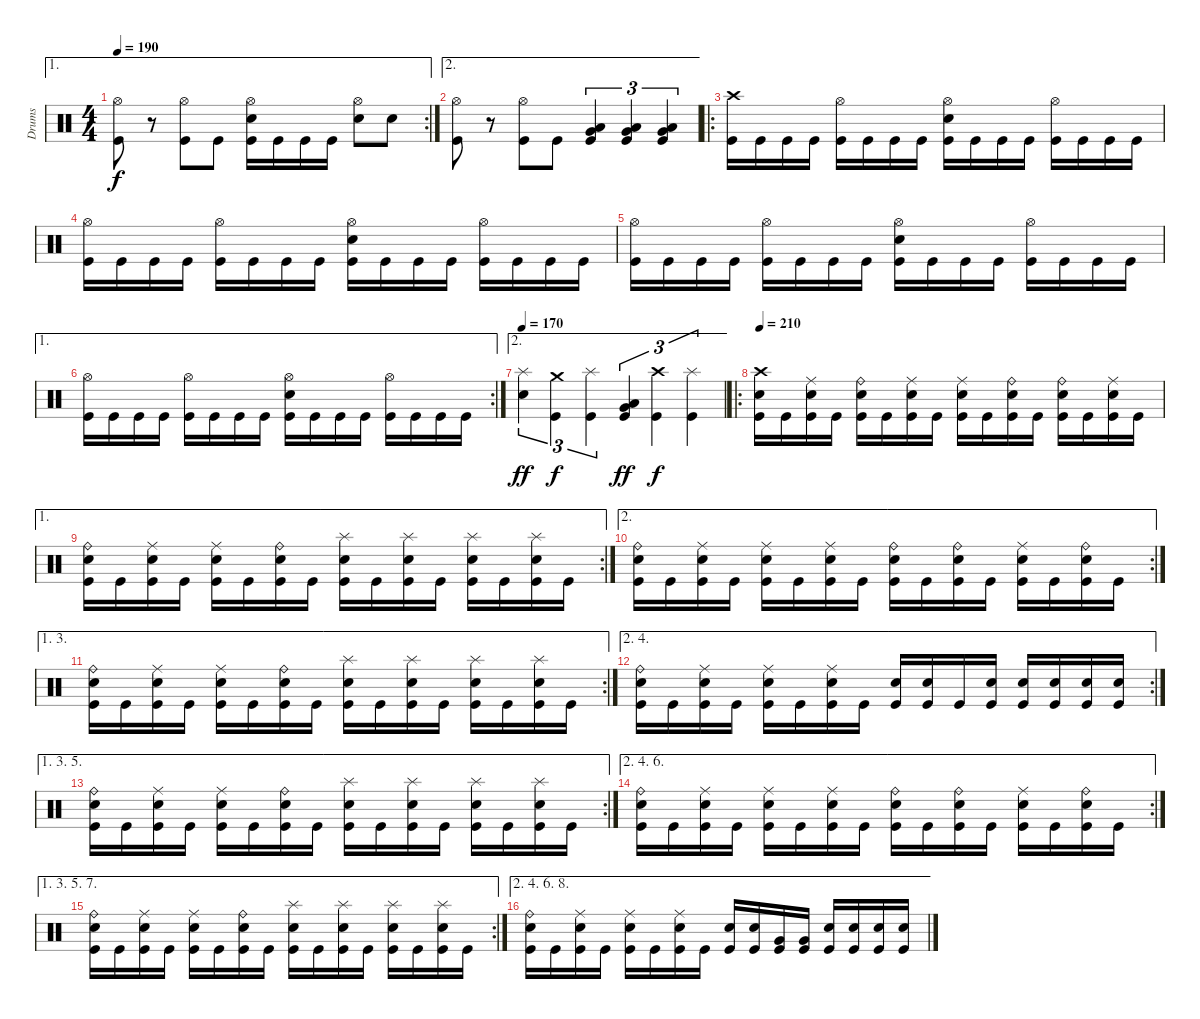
\track ("Drums" "Drums") {instrument percussion}
\staff {score}
\articulation defaults
\ae 1
\rc 2
\ts (4 4)
\tempo 190
\clef neutral
\ks c
("Hi-Hat (open)" "Kick (hit)").8{dy f} r.8 ("Hi-Hat (open)" "Kick (hit)").8 "Kick (hit)".8 ("Hi-Hat (open)" "Electric Snare (hit)" "Kick (hit)").16 "Kick (hit)".16 "Kick (hit)".16 "Kick (hit)".16 ("Hi-Hat (open)" "Electric Snare (hit)").8 "Electric Snare (hit)".8 |
\ae 2
("Hi-Hat (open)" "Kick (hit)").8 r.8 ("Hi-Hat (open)" "Kick (hit)").8 "Kick (hit)".8 ("Very Low Tom (hit)" "Low Tom (hit)" "Kick (hit)").4{tu (3 2)} ("Very Low Tom (hit)" "Low Tom (hit)" "Kick (hit)").4{tu (3 2)} ("Very Low Tom (hit)" "Low Tom (hit)" "Kick (hit)").4{tu (3 2)} |
\ro
("Crash high (hit)" "Kick (hit)").16 "Kick (hit)".16 "Kick (hit)".16 "Kick (hit)".16 ("Hi-Hat (open)" "Kick (hit)").16 "Kick (hit)".16 "Kick (hit)".16 "Kick (hit)".16 ("Hi-Hat (open)" "Electric Snare (hit)" "Kick (hit)").16 "Kick (hit)".16 "Kick (hit)".16 "Kick (hit)".16 ("Hi-Hat (open)" "Kick (hit)").16 "Kick (hit)".16 "Kick (hit)".16 "Kick (hit)".16 |
("Hi-Hat (open)" "Kick (hit)").16 "Kick (hit)".16 "Kick (hit)".16 "Kick (hit)".16 ("Hi-Hat (open)" "Kick (hit)").16 "Kick (hit)".16 "Kick (hit)".16 "Kick (hit)".16 ("Hi-Hat (open)" "Electric Snare (hit)" "Kick (hit)").16 "Kick (hit)".16 "Kick (hit)".16 "Kick (hit)".16 ("Hi-Hat (open)" "Kick (hit)").16 "Kick (hit)".16 "Kick (hit)".16 "Kick (hit)".16 |
("Hi-Hat (open)" "Kick (hit)").16 "Kick (hit)".16 "Kick (hit)".16 "Kick (hit)".16 ("Hi-Hat (open)" "Kick (hit)").16 "Kick (hit)".16 "Kick (hit)".16 "Kick (hit)".16 ("Hi-Hat (open)" "Electric Snare (hit)" "Kick (hit)").16 "Kick (hit)".16 "Kick (hit)".16 "Kick (hit)".16 ("Hi-Hat (open)" "Kick (hit)").16 "Kick (hit)".16 "Kick (hit)".16 "Kick (hit)".16 |
\ae 1
\rc 2
("Hi-Hat (open)" "Kick (hit)").16 "Kick (hit)".16 "Kick (hit)".16 "Kick (hit)".16 ("Hi-Hat (open)" "Kick (hit)").16 "Kick (hit)".16 "Kick (hit)".16 "Kick (hit)".16 ("Hi-Hat (open)" "Electric Snare (hit)" "Kick (hit)").16 "Kick (hit)".16 "Kick (hit)".16 "Kick (hit)".16 ("Hi-Hat (open)" "Kick (hit)").16 "Kick (hit)".16 "Kick (hit)".16 "Kick (hit)".16 |
\ae 2
\tempo 170
("Splash (hit)" "Electric Snare (hit)").4{tu (3 2) dy ff} ("Crash medium (hit)" "Kick (hit)").4{tu (3 2) dy f} ("Splash (hit)" "Kick (hit)").4{tu (3 2)} ("Low Floor Tom (hit)" "Very Low Tom (hit)" "Kick (hit)").4{tu (3 2) dy ff} ("Crash high (hit)" "Kick (hit)").4{tu (3 2) dy f} ("Splash (hit)" "Kick (hit)").4{tu (3 2)} |
\ro
\tempo 210
("Crash high (hit)" "Electric Snare (hit)" "Kick (hit)").16 "Kick (hit)".16 ("Ride (middle)" "Electric Snare (hit)" "Kick (hit)").16 "Kick (hit)".16 ("Ride (bell)" "Electric Snare (hit)" "Kick (hit)").16 "Kick (hit)".16 ("Ride (middle)" "Electric Snare (hit)" "Kick (hit)").16 "Kick (hit)".16 ("Ride (middle)" "Electric Snare (hit)" "Kick (hit)").16 "Kick (hit)".16 ("Ride (bell)" "Electric Snare (hit)" "Kick (hit)").16 "Kick (hit)".16 ("Ride (bell)" "Electric Snare (hit)" "Kick (hit)").16 "Kick (hit)".16 ("Ride (middle)" "Electric Snare (hit)" "Kick (hit)").16 "Kick (hit)".16 |
\ae 1
\rc 2
("Ride (bell)" "Electric Snare (hit)" "Kick (hit)").16 "Kick (hit)".16 ("Ride (middle)" "Electric Snare (hit)" "Kick (hit)").16 "Kick (hit)".16 ("Ride (middle)" "Electric Snare (hit)" "Kick (hit)").16 "Kick (hit)".16 ("Ride (bell)" "Electric Snare (hit)" "Kick (hit)").16 "Kick (hit)".16 ("Splash (hit)" "Electric Snare (hit)" "Kick (hit)").16 "Kick (hit)".16 ("Splash (hit)" "Electric Snare (hit)" "Kick (hit)").16 "Kick (hit)".16 ("Splash (hit)" "Electric Snare (hit)" "Kick (hit)").16 "Kick (hit)".16 ("Splash (hit)" "Electric Snare (hit)" "Kick (hit)").16 "Kick (hit)".16 |
\ae 2
\rc 2
("Ride (bell)" "Electric Snare (hit)" "Kick (hit)").16 "Kick (hit)".16 ("Ride (middle)" "Electric Snare (hit)" "Kick (hit)").16 "Kick (hit)".16 ("Ride (middle)" "Electric Snare (hit)" "Kick (hit)").16 "Kick (hit)".16 ("Ride (middle)" "Electric Snare (hit)" "Kick (hit)").16 "Kick (hit)".16 ("Ride (bell)" "Electric Snare (hit)" "Kick (hit)").16 "Kick (hit)".16 ("Ride (bell)" "Electric Snare (hit)" "Kick (hit)").16 "Kick (hit)".16 ("Ride (middle)" "Electric Snare (hit)" "Kick (hit)").16 "Kick (hit)".16 ("Ride (bell)" "Electric Snare (hit)" "Kick (hit)").16 "Kick (hit)".16 |
\ae (1 3)
\rc 2
("Ride (bell)" "Electric Snare (hit)" "Kick (hit)").16 "Kick (hit)".16 ("Ride (middle)" "Electric Snare (hit)" "Kick (hit)").16 "Kick (hit)".16 ("Ride (middle)" "Electric Snare (hit)" "Kick (hit)").16 "Kick (hit)".16 ("Ride (bell)" "Electric Snare (hit)" "Kick (hit)").16 "Kick (hit)".16 ("Splash (hit)" "Electric Snare (hit)" "Kick (hit)").16 "Kick (hit)".16 ("Splash (hit)" "Electric Snare (hit)" "Kick (hit)").16 "Kick (hit)".16 ("Splash (hit)" "Electric Snare (hit)" "Kick (hit)").16 "Kick (hit)".16 ("Splash (hit)" "Electric Snare (hit)" "Kick (hit)").16 "Kick (hit)".16 |
\ae (2 4)
\rc 2
("Ride (bell)" "Electric Snare (hit)" "Kick (hit)").16 "Kick (hit)".16 ("Ride (middle)" "Electric Snare (hit)" "Kick (hit)").16 "Kick (hit)".16 ("Ride (middle)" "Electric Snare (hit)" "Kick (hit)").16 "Kick (hit)".16 ("Ride (middle)" "Electric Snare (hit)" "Kick (hit)").16 "Kick (hit)".16 ("Electric Snare (hit)" "Kick (hit)").16 ("Electric Snare (hit)" "Kick (hit)").16 "Kick (hit)".16 ("Electric Snare (hit)" "Kick (hit)").16 ("Electric Snare (hit)" "Kick (hit)").16 ("Electric Snare (hit)" "Kick (hit)").16 ("Electric Snare (hit)" "Kick (hit)").16 ("Electric Snare (hit)" "Kick (hit)").16 |
\ae (1 3 5)
\rc 2
("Ride (bell)" "Electric Snare (hit)" "Kick (hit)").16 "Kick (hit)".16 ("Ride (middle)" "Electric Snare (hit)" "Kick (hit)").16 "Kick (hit)".16 ("Ride (middle)" "Electric Snare (hit)" "Kick (hit)").16 "Kick (hit)".16 ("Ride (bell)" "Electric Snare (hit)" "Kick (hit)").16 "Kick (hit)".16 ("Splash (hit)" "Electric Snare (hit)" "Kick (hit)").16 "Kick (hit)".16 ("Splash (hit)" "Electric Snare (hit)" "Kick (hit)").16 "Kick (hit)".16 ("Splash (hit)" "Electric Snare (hit)" "Kick (hit)").16 "Kick (hit)".16 ("Splash (hit)" "Electric Snare (hit)" "Kick (hit)").16 "Kick (hit)".16 |
\ae (2 4 6)
\rc 2
("Ride (bell)" "Electric Snare (hit)" "Kick (hit)").16 "Kick (hit)".16 ("Ride (middle)" "Electric Snare (hit)" "Kick (hit)").16 "Kick (hit)".16 ("Ride (middle)" "Electric Snare (hit)" "Kick (hit)").16 "Kick (hit)".16 ("Ride (middle)" "Electric Snare (hit)" "Kick (hit)").16 "Kick (hit)".16 ("Ride (bell)" "Electric Snare (hit)" "Kick (hit)").16 "Kick (hit)".16 ("Ride (bell)" "Electric Snare (hit)" "Kick (hit)").16 "Kick (hit)".16 ("Ride (middle)" "Electric Snare (hit)" "Kick (hit)").16 "Kick (hit)".16 ("Ride (bell)" "Electric Snare (hit)" "Kick (hit)").16 "Kick (hit)".16 |
\ae (1 3 5 7)
\rc 2
("Ride (bell)" "Electric Snare (hit)" "Kick (hit)").16 "Kick (hit)".16 ("Ride (middle)" "Electric Snare (hit)" "Kick (hit)").16 "Kick (hit)".16 ("Ride (middle)" "Electric Snare (hit)" "Kick (hit)").16 "Kick (hit)".16 ("Ride (bell)" "Electric Snare (hit)" "Kick (hit)").16 "Kick (hit)".16 ("Splash (hit)" "Electric Snare (hit)" "Kick (hit)").16 "Kick (hit)".16 ("Splash (hit)" "Electric Snare (hit)" "Kick (hit)").16 "Kick (hit)".16 ("Splash (hit)" "Electric Snare (hit)" "Kick (hit)").16 "Kick (hit)".16 ("Splash (hit)" "Electric Snare (hit)" "Kick (hit)").16 "Kick (hit)".16 |
\ae (2 4 6 8)
("Ride (bell)" "Electric Snare (hit)" "Kick (hit)").16 "Kick (hit)".16 ("Ride (middle)" "Electric Snare (hit)" "Kick (hit)").16 "Kick (hit)".16 ("Ride (middle)" "Electric Snare (hit)" "Kick (hit)").16 "Kick (hit)".16 ("Ride (middle)" "Electric Snare (hit)" "Kick (hit)").16 "Kick (hit)".16 ("Electric Snare (hit)" "Kick (hit)").16 ("Electric Snare (hit)" "Kick (hit)").16 ("Very Low Tom (hit)" "Kick (hit)").16 ("Very Low Tom (hit)" "Kick (hit)").16 ("Electric Snare (hit)" "Kick (hit)").16 ("Electric Snare (hit)" "Kick (hit)").16 ("Electric Snare (hit)" "Kick (hit)").16 ("Electric Snare (hit)" "Kick (hit)").16
